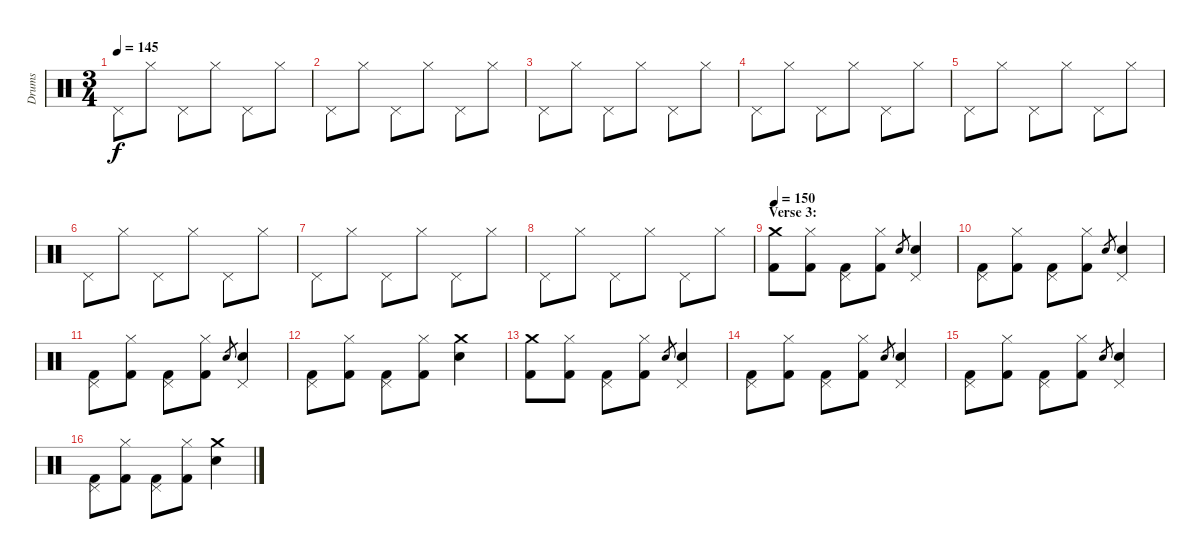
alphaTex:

\track ("Drums" "Drums") {instrument percussion}
\staff {score}
\articulation defaults
\ts (3 4)
\tempo 145
\clef neutral
\ks c "Pedal Hi-Hat (hit)".8{dy f} "Hi-Hat (closed)".8 "Pedal Hi-Hat (hit)".8 "Hi-Hat (closed)".8 "Pedal Hi-Hat (hit)".8 "Hi-Hat (closed)".8
|
"Pedal Hi-Hat (hit)".8 "Hi-Hat (closed)".8 "Pedal Hi-Hat (hit)".8 "Hi-Hat (closed)".8 "Pedal Hi-Hat (hit)".8 "Hi-Hat (closed)".8 |
"Pedal Hi-Hat (hit)".8 "Hi-Hat (closed)".8 "Pedal Hi-Hat (hit)".8 "Hi-Hat (closed)".8 "Pedal Hi-Hat (hit)".8 "Hi-Hat (closed)".8 |
"Pedal Hi-Hat (hit)".8 "Hi-Hat (closed)".8 "Pedal Hi-Hat (hit)".8 "Hi-Hat (closed)".8 "Pedal Hi-Hat (hit)".8 "Hi-Hat (closed)".8 |
"Pedal Hi-Hat (hit)".8 "Hi-Hat (closed)".8 "Pedal Hi-Hat (hit)".8 "Hi-Hat (closed)".8 "Pedal Hi-Hat (hit)".8 "Hi-Hat (closed)".8 |
"Pedal Hi-Hat (hit)".8 "Hi-Hat (closed)".8 "Pedal Hi-Hat (hit)".8 "Hi-Hat (closed)".8 "Pedal Hi-Hat (hit)".8 "Hi-Hat (closed)".8 |
"Pedal Hi-Hat (hit)".8 "Hi-Hat (closed)".8 "Pedal Hi-Hat (hit)".8 "Hi-Hat (closed)".8 "Pedal Hi-Hat (hit)".8 "Hi-Hat (closed)".8 |
"Pedal Hi-Hat (hit)".8 "Hi-Hat (closed)".8 "Pedal Hi-Hat (hit)".8 "Hi-Hat (closed)".8 "Pedal Hi-Hat (hit)".8 "Hi-Hat (closed)".8 |
\section ("" "Verse 3:")
\tempo 150
("Crash medium (hit)" "Kick (hit) 2").8 ("Hi-Hat (closed)" "Kick (hit) 2").8 ("Pedal Hi-Hat (hit)" "Kick (hit) 2").8 ("Hi-Hat (closed)" "Kick (hit) 2").8 "Electric Snare (hit)".8{gr} ("Pedal Hi-Hat (hit)" "Electric Snare (hit)").4 |
("Pedal Hi-Hat (hit)" "Kick (hit) 2").8 ("Hi-Hat (closed)" "Kick (hit) 2").8 ("Pedal Hi-Hat (hit)" "Kick (hit) 2").8 ("Hi-Hat (closed)" "Kick (hit) 2").8 "Electric Snare (hit)".8{gr} ("Pedal Hi-Hat (hit)" "Electric Snare (hit)").4 |
("Pedal Hi-Hat (hit)" "Kick (hit) 2").8 ("Hi-Hat (closed)" "Kick (hit) 2").8 ("Pedal Hi-Hat (hit)" "Kick (hit) 2").8 ("Hi-Hat (closed)" "Kick (hit) 2").8 "Electric Snare (hit)".8{gr} ("Pedal Hi-Hat (hit)" "Electric Snare (hit)").4 |
("Pedal Hi-Hat (hit)" "Kick (hit) 2").8 ("Hi-Hat (closed)" "Kick (hit) 2").8 ("Pedal Hi-Hat (hit)" "Kick (hit) 2").8 ("Hi-Hat (closed)" "Kick (hit) 2").8 ("Crash medium (hit)" "Electric Snare (hit)").4 |
("Crash medium (hit)" "Kick (hit) 2").8 ("Hi-Hat (closed)" "Kick (hit) 2").8 ("Pedal Hi-Hat (hit)" "Kick (hit) 2").8 ("Hi-Hat (closed)" "Kick (hit) 2").8 "Electric Snare (hit)".8{gr} ("Pedal Hi-Hat (hit)" "Electric Snare (hit)").4 |
("Pedal Hi-Hat (hit)" "Kick (hit) 2").8 ("Hi-Hat (closed)" "Kick (hit) 2").8 ("Pedal Hi-Hat (hit)" "Kick (hit) 2").8 ("Hi-Hat (closed)" "Kick (hit) 2").8 "Electric Snare (hit)".8{gr} ("Pedal Hi-Hat (hit)" "Electric Snare (hit)").4 |
("Pedal Hi-Hat (hit)" "Kick (hit) 2").8 ("Hi-Hat (closed)" "Kick (hit) 2").8 ("Pedal Hi-Hat (hit)" "Kick (hit) 2").8 ("Hi-Hat (closed)" "Kick (hit) 2").8 "Electric Snare (hit)".8{gr} ("Pedal Hi-Hat (hit)" "Electric Snare (hit)").4 |
("Pedal Hi-Hat (hit)" "Kick (hit) 2").8 ("Hi-Hat (closed)" "Kick (hit) 2").8 ("Pedal Hi-Hat (hit)" "Kick (hit) 2").8 ("Hi-Hat (closed)" "Kick (hit) 2").8 ("Crash medium (hit)" "Electric Snare (hit)").4
